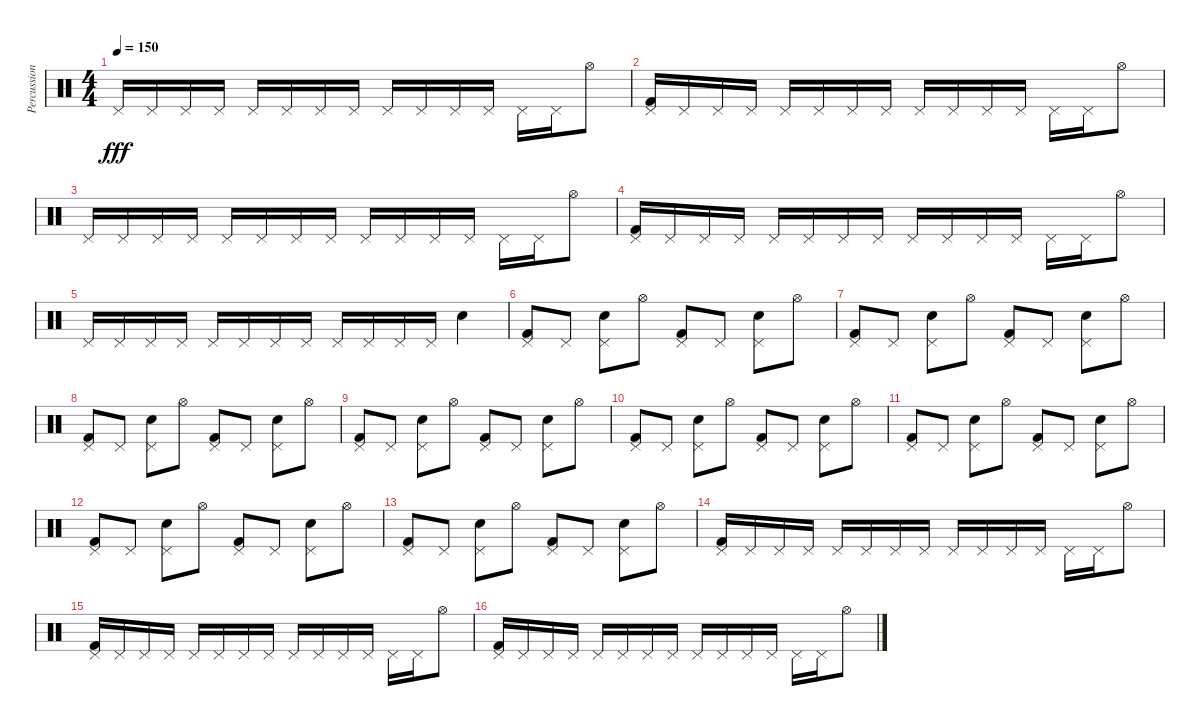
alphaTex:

\track ("Percussions" "Percussion") {instrument percussion}
\staff {score}
\articulation defaults
\ts (4 4)
\tempo 150
\clef neutral
\ks c "Pedal Hi-Hat (hit)".16{dy fff} "Pedal Hi-Hat (hit)".16 "Pedal Hi-Hat (hit)".16 "Pedal Hi-Hat (hit)".16 "Pedal Hi-Hat (hit)".16 "Pedal Hi-Hat (hit)".16 "Pedal Hi-Hat (hit)".16 "Pedal Hi-Hat (hit)".16 "Pedal Hi-Hat (hit)".16 "Pedal Hi-Hat (hit)".16 "Pedal Hi-Hat (hit)".16 "Pedal Hi-Hat (hit)".16 "Pedal Hi-Hat (hit)".16 "Pedal Hi-Hat (hit)".16 "Hi-Hat (open)".8
|
("Pedal Hi-Hat (hit)" "Kick (hit) 2").16 "Pedal Hi-Hat (hit)".16 "Pedal Hi-Hat (hit)".16 "Pedal Hi-Hat (hit)".16 "Pedal Hi-Hat (hit)".16 "Pedal Hi-Hat (hit)".16 "Pedal Hi-Hat (hit)".16 "Pedal Hi-Hat (hit)".16 "Pedal Hi-Hat (hit)".16 "Pedal Hi-Hat (hit)".16 "Pedal Hi-Hat (hit)".16 "Pedal Hi-Hat (hit)".16 "Pedal Hi-Hat (hit)".16 "Pedal Hi-Hat (hit)".16 "Hi-Hat (open)".8 |
"Pedal Hi-Hat (hit)".16 "Pedal Hi-Hat (hit)".16 "Pedal Hi-Hat (hit)".16 "Pedal Hi-Hat (hit)".16 "Pedal Hi-Hat (hit)".16 "Pedal Hi-Hat (hit)".16 "Pedal Hi-Hat (hit)".16 "Pedal Hi-Hat (hit)".16 "Pedal Hi-Hat (hit)".16 "Pedal Hi-Hat (hit)".16 "Pedal Hi-Hat (hit)".16 "Pedal Hi-Hat (hit)".16 "Pedal Hi-Hat (hit)".16 "Pedal Hi-Hat (hit)".16 "Hi-Hat (open)".8 |
("Pedal Hi-Hat (hit)" "Kick (hit) 2").16 "Pedal Hi-Hat (hit)".16 "Pedal Hi-Hat (hit)".16 "Pedal Hi-Hat (hit)".16 "Pedal Hi-Hat (hit)".16 "Pedal Hi-Hat (hit)".16 "Pedal Hi-Hat (hit)".16 "Pedal Hi-Hat (hit)".16 "Pedal Hi-Hat (hit)".16 "Pedal Hi-Hat (hit)".16 "Pedal Hi-Hat (hit)".16 "Pedal Hi-Hat (hit)".16 "Pedal Hi-Hat (hit)".16 "Pedal Hi-Hat (hit)".16 "Hi-Hat (open)".8 |
"Pedal Hi-Hat (hit)".16 "Pedal Hi-Hat (hit)".16 "Pedal Hi-Hat (hit)".16 "Pedal Hi-Hat (hit)".16 "Pedal Hi-Hat (hit)".16 "Pedal Hi-Hat (hit)".16 "Pedal Hi-Hat (hit)".16 "Pedal Hi-Hat (hit)".16 "Pedal Hi-Hat (hit)".16 "Pedal Hi-Hat (hit)".16 "Pedal Hi-Hat (hit)".16 "Pedal Hi-Hat (hit)".16 "Electric Snare (hit)".4 |
("Pedal Hi-Hat (hit)" "Kick (hit) 2").8 "Pedal Hi-Hat (hit)".8 ("Pedal Hi-Hat (hit)" "Electric Snare (hit)").8 "Hi-Hat (open)".8 ("Pedal Hi-Hat (hit)" "Kick (hit) 2").8 "Pedal Hi-Hat (hit)".8 ("Pedal Hi-Hat (hit)" "Electric Snare (hit)").8 "Hi-Hat (open)".8 |
("Pedal Hi-Hat (hit)" "Kick (hit) 2").8 "Pedal Hi-Hat (hit)".8 ("Pedal Hi-Hat (hit)" "Electric Snare (hit)").8 "Hi-Hat (open)".8 ("Pedal Hi-Hat (hit)" "Kick (hit) 2").8 "Pedal Hi-Hat (hit)".8 ("Pedal Hi-Hat (hit)" "Electric Snare (hit)").8 "Hi-Hat (open)".8 |
("Pedal Hi-Hat (hit)" "Kick (hit) 2").8 "Pedal Hi-Hat (hit)".8 ("Pedal Hi-Hat (hit)" "Electric Snare (hit)").8 "Hi-Hat (open)".8 ("Pedal Hi-Hat (hit)" "Kick (hit) 2").8 "Pedal Hi-Hat (hit)".8 ("Pedal Hi-Hat (hit)" "Electric Snare (hit)").8 "Hi-Hat (open)".8 |
("Pedal Hi-Hat (hit)" "Kick (hit) 2").8 "Pedal Hi-Hat (hit)".8 ("Pedal Hi-Hat (hit)" "Electric Snare (hit)").8 "Hi-Hat (open)".8 ("Pedal Hi-Hat (hit)" "Kick (hit) 2").8 "Pedal Hi-Hat (hit)".8 ("Pedal Hi-Hat (hit)" "Electric Snare (hit)").8 "Hi-Hat (open)".8 |
("Pedal Hi-Hat (hit)" "Kick (hit) 2").8 "Pedal Hi-Hat (hit)".8 ("Pedal Hi-Hat (hit)" "Electric Snare (hit)").8 "Hi-Hat (open)".8 ("Pedal Hi-Hat (hit)" "Kick (hit) 2").8 "Pedal Hi-Hat (hit)".8 ("Pedal Hi-Hat (hit)" "Electric Snare (hit)").8 "Hi-Hat (open)".8 |
("Pedal Hi-Hat (hit)" "Kick (hit) 2").8 "Pedal Hi-Hat (hit)".8 ("Pedal Hi-Hat (hit)" "Electric Snare (hit)").8 "Hi-Hat (open)".8 ("Pedal Hi-Hat (hit)" "Kick (hit) 2").8 "Pedal Hi-Hat (hit)".8 ("Pedal Hi-Hat (hit)" "Electric Snare (hit)").8 "Hi-Hat (open)".8 |
("Pedal Hi-Hat (hit)" "Kick (hit) 2").8 "Pedal Hi-Hat (hit)".8 ("Pedal Hi-Hat (hit)" "Electric Snare (hit)").8 "Hi-Hat (open)".8 ("Pedal Hi-Hat (hit)" "Kick (hit) 2").8 "Pedal Hi-Hat (hit)".8 ("Pedal Hi-Hat (hit)" "Electric Snare (hit)").8 "Hi-Hat (open)".8 |
("Pedal Hi-Hat (hit)" "Kick (hit) 2").8 "Pedal Hi-Hat (hit)".8 ("Pedal Hi-Hat (hit)" "Electric Snare (hit)").8 "Hi-Hat (open)".8 ("Pedal Hi-Hat (hit)" "Kick (hit) 2").8 "Pedal Hi-Hat (hit)".8 ("Pedal Hi-Hat (hit)" "Electric Snare (hit)").8 "Hi-Hat (open)".8 |
("Pedal Hi-Hat (hit)" "Kick (hit) 2").16 "Pedal Hi-Hat (hit)".16 "Pedal Hi-Hat (hit)".16 "Pedal Hi-Hat (hit)".16 "Pedal Hi-Hat (hit)".16 "Pedal Hi-Hat (hit)".16 "Pedal Hi-Hat (hit)".16 "Pedal Hi-Hat (hit)".16 "Pedal Hi-Hat (hit)".16 "Pedal Hi-Hat (hit)".16 "Pedal Hi-Hat (hit)".16 "Pedal Hi-Hat (hit)".16 "Pedal Hi-Hat (hit)".16 "Pedal Hi-Hat (hit)".16 "Hi-Hat (open)".8 |
("Pedal Hi-Hat (hit)" "Kick (hit) 2").16 "Pedal Hi-Hat (hit)".16 "Pedal Hi-Hat (hit)".16 "Pedal Hi-Hat (hit)".16 "Pedal Hi-Hat (hit)".16 "Pedal Hi-Hat (hit)".16 "Pedal Hi-Hat (hit)".16 "Pedal Hi-Hat (hit)".16 "Pedal Hi-Hat (hit)".16 "Pedal Hi-Hat (hit)".16 "Pedal Hi-Hat (hit)".16 "Pedal Hi-Hat (hit)".16 "Pedal Hi-Hat (hit)".16 "Pedal Hi-Hat (hit)".16 "Hi-Hat (open)".8 |
("Pedal Hi-Hat (hit)" "Kick (hit) 2").16 "Pedal Hi-Hat (hit)".16 "Pedal Hi-Hat (hit)".16 "Pedal Hi-Hat (hit)".16 "Pedal Hi-Hat (hit)".16 "Pedal Hi-Hat (hit)".16 "Pedal Hi-Hat (hit)".16 "Pedal Hi-Hat (hit)".16 "Pedal Hi-Hat (hit)".16 "Pedal Hi-Hat (hit)".16 "Pedal Hi-Hat (hit)".16 "Pedal Hi-Hat (hit)".16 "Pedal Hi-Hat (hit)".16 "Pedal Hi-Hat (hit)".16 "Hi-Hat (open)".8
